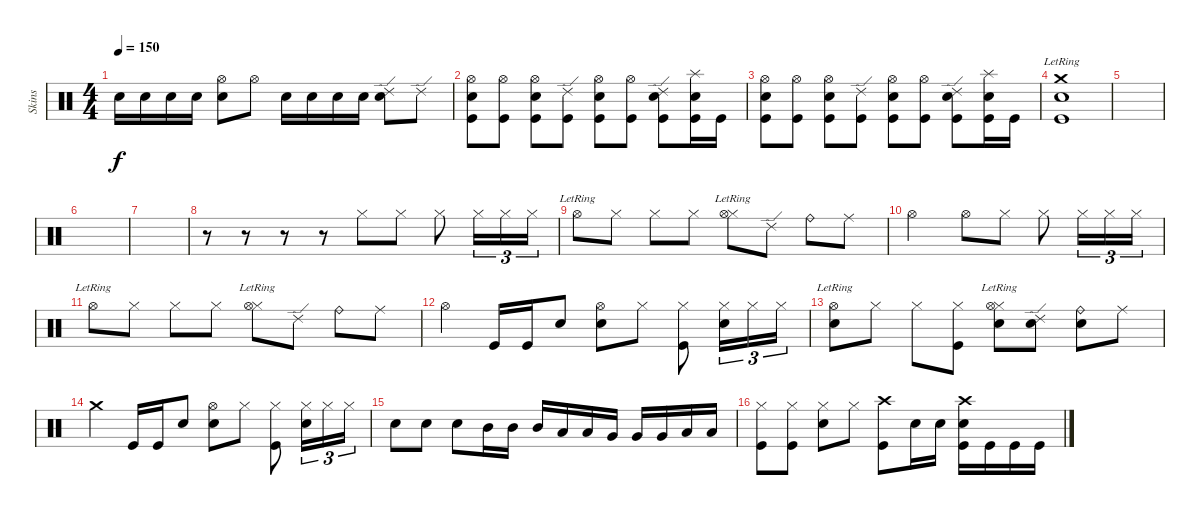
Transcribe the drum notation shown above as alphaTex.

\track ("Skins" "Skins") {instrument percussion}
\staff {score}
\articulation defaults
\ts (4 4)
\tempo 150
\clef neutral
\ks c "Electric Snare (hit)".16{dy f} "Electric Snare (hit)".16 "Electric Snare (hit)".16 "Electric Snare (hit)".16
("Electric Snare (hit)" "Hi-Hat (open)").8 "Hi-Hat (open)".8 "Snare (hit) 2".16 "Snare (hit) 2".16 "Snare (hit) 2".16 "Snare (hit) 2".16 ("Snare (hit) 2" "Ride (edge) 2").8 "Ride (edge) 2".8 |
("Hi-Hat (open)" "Snare (hit) 2" "Kick (hit)").8 ("Hi-Hat (open)" "Kick (hit)").8 ("Hi-Hat (open)" "Snare (hit) 2" "Kick (hit)").8 ("Ride (edge) 2" "Kick (hit)").8 ("Hi-Hat (open)" "Snare (hit) 2" "Kick (hit)").8 ("Hi-Hat (open)" "Kick (hit)").8 ("Ride (edge) 2" "Electric Snare (hit)" "Kick (hit)").8 ("Splash (hit)" "Electric Snare (hit)" "Kick (hit)").16 "Kick (hit)".16 |
("Hi-Hat (open)" "Snare (hit) 2" "Kick (hit)").8 ("Hi-Hat (open)" "Kick (hit)").8 ("Hi-Hat (open)" "Snare (hit) 2" "Kick (hit)").8 ("Ride (edge) 2" "Kick (hit)").8 ("Hi-Hat (open)" "Snare (hit) 2" "Kick (hit)").8 ("Hi-Hat (open)" "Kick (hit)").8 ("Ride (edge) 2" "Electric Snare (hit)" "Kick (hit)").8 ("Splash (hit)" "Electric Snare (hit)" "Kick (hit)").16 "Kick (hit)".16 |
("Snare (hit) 2" "Crash medium (hit)"{lr} "Kick (hit)").1 |
|
|
|
r.8 r.8 r.8 r.8 "Hi-Hat (closed)".8 "Hi-Hat (closed)".8 "Hi-Hat (closed)".8 "Hi-Hat (closed)".16{tu (3 2)} "Hi-Hat (closed)".16{tu (3 2)} "Hi-Hat (closed)".16{tu (3 2)} |
"Hi-Hat (open)"{lr}.8 "Hi-Hat (closed)".8 "Hi-Hat (closed)".8 "Hi-Hat (closed)".8 ("Hi-Hat (closed)" "Hi-Hat (open)"{lr}).8 "Ride (edge) 2".8 "Ride (bell)".8 "Ride (middle)".8 |
"Hi-Hat (open)".2 "Hi-Hat (open)".8 "Hi-Hat (closed)".8 "Hi-Hat (closed)".8 "Hi-Hat (closed)".16{tu (3 2)} "Hi-Hat (closed)".16{tu (3 2)} "Hi-Hat (closed)".16{tu (3 2)} |
"Hi-Hat (open)"{lr}.8 "Hi-Hat (closed)".8 "Hi-Hat (closed)".8 "Hi-Hat (closed)".8 ("Hi-Hat (closed)" "Hi-Hat (open)"{lr}).8 "Ride (edge) 2".8 "Ride (bell)".8 "Ride (middle)".8 |
"Hi-Hat (open)".4 "Kick (hit)".16 "Kick (hit)".16 "Electric Snare (hit)".8 ("Hi-Hat (open)" "Electric Snare (hit)").8 "Hi-Hat (closed)".8 ("Hi-Hat (closed)" "Kick (hit)").8 ("Hi-Hat (closed)" "Electric Snare (hit)").16{tu (3 2)} "Hi-Hat (closed)".16{tu (3 2)} "Hi-Hat (closed)".16{tu (3 2)} |
("Hi-Hat (open)"{lr} "Electric Snare (hit)").8 "Hi-Hat (closed)".8 "Hi-Hat (closed)".8 ("Hi-Hat (closed)" "Kick (hit)").8 ("Hi-Hat (closed)" "Hi-Hat (open)"{lr} "Electric Snare (hit)").8 ("Ride (edge) 2" "Electric Snare (hit)").8 ("Ride (bell)" "Electric Snare (hit)").8 "Ride (middle)".8 |
"Crash medium (hit)".4 "Kick (hit)".16 "Kick (hit)".16 "Electric Snare (hit)".8 ("Hi-Hat (open)" "Electric Snare (hit)").8 "Hi-Hat (closed)".8 ("Hi-Hat (closed)" "Kick (hit)").8 ("Hi-Hat (closed)" "Electric Snare (hit)").16{tu (3 2)} "Hi-Hat (closed)".16{tu (3 2)} "Hi-Hat (closed)".16{tu (3 2)} |
"Electric Snare (hit)".8 "Electric Snare (hit)".8 "Electric Snare (hit)".8 "Mid Tom (hit)".16 "Mid Tom (hit)".16 "Mid Tom (hit)".16 "Low Tom (hit)".16 "Low Tom (hit)".16 "Very Low Tom (hit)".16 "Very Low Tom (hit)".16 "Very Low Tom (hit)".16 "Low Floor Tom (hit)".16 "Low Floor Tom (hit)".16 |
("Hi-Hat (closed)" "Kick (hit)").8 ("Hi-Hat (closed)" "Kick (hit)").8 ("Hi-Hat (closed)" "Electric Snare (hit)").8 "Hi-Hat (closed)".8 ("Crash high (hit)" "Kick (hit)").8 "Electric Snare (hit)".16 "Electric Snare (hit)".16 ("Crash high (hit)" "Electric Snare (hit)" "Kick (hit)").16 "Kick (hit)".16 "Kick (hit)".16 "Kick (hit)".16
